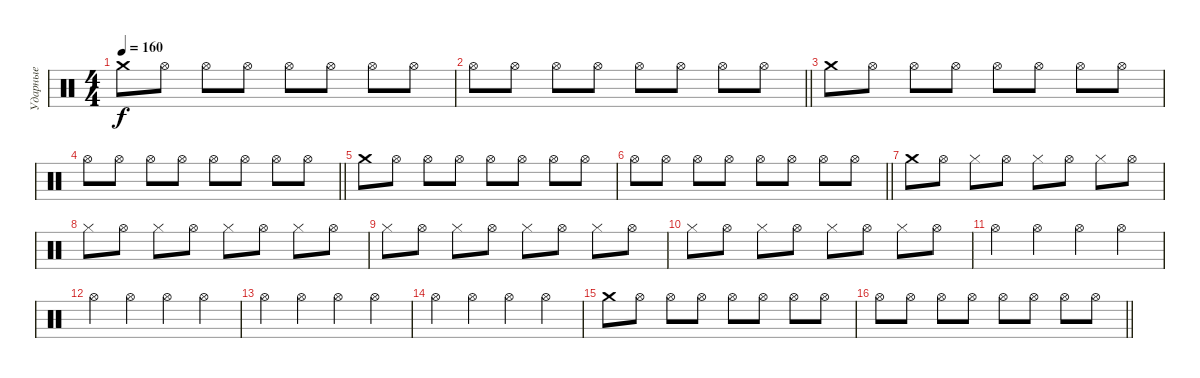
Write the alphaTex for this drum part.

\track ("Ударные" "Ударные") {instrument percussion}
\staff {score}
\articulation defaults
\ts (4 4)
\tempo 160
\clef neutral
\ks c "Crash medium (hit)".8{dy f} "Hi-Hat (open)".8 "Hi-Hat (open)".8 "Hi-Hat (open)".8 "Hi-Hat (open)".8 "Hi-Hat (open)".8 "Hi-Hat (open)".8 "Hi-Hat (open)".8
|
\barLineRight lightlight "Hi-Hat (open)".8 "Hi-Hat (open)".8 "Hi-Hat (open)".8 "Hi-Hat (open)".8 "Hi-Hat (open)".8 "Hi-Hat (open)".8 "Hi-Hat (open)".8 "Hi-Hat (open)".8
|
"Crash medium (hit)".8 "Hi-Hat (open)".8 "Hi-Hat (open)".8 "Hi-Hat (open)".8 "Hi-Hat (open)".8 "Hi-Hat (open)".8 "Hi-Hat (open)".8 "Hi-Hat (open)".8 |
\barLineRight lightlight "Hi-Hat (open)".8 "Hi-Hat (open)".8 "Hi-Hat (open)".8 "Hi-Hat (open)".8 "Hi-Hat (open)".8 "Hi-Hat (open)".8 "Hi-Hat (open)".8 "Hi-Hat (open)".8
|
"Crash medium (hit)".8 "Hi-Hat (open)".8 "Hi-Hat (open)".8 "Hi-Hat (open)".8 "Hi-Hat (open)".8 "Hi-Hat (open)".8 "Hi-Hat (open)".8 "Hi-Hat (open)".8 |
\barLineRight lightlight "Hi-Hat (open)".8 "Hi-Hat (open)".8 "Hi-Hat (open)".8 "Hi-Hat (open)".8 "Hi-Hat (open)".8 "Hi-Hat (open)".8 "Hi-Hat (open)".8 "Hi-Hat (open)".8
|
"Crash medium (hit)".8 "Hi-Hat (open)".8 "Hi-Hat (closed)".8 "Hi-Hat (open)".8 "Hi-Hat (closed)".8 "Hi-Hat (open)".8 "Hi-Hat (closed)".8 "Hi-Hat (open)".8 |
"Hi-Hat (closed)".8 "Hi-Hat (open)".8 "Hi-Hat (closed)".8 "Hi-Hat (open)".8 "Hi-Hat (closed)".8 "Hi-Hat (open)".8 "Hi-Hat (closed)".8 "Hi-Hat (open)".8 |
"Hi-Hat (closed)".8 "Hi-Hat (open)".8 "Hi-Hat (closed)".8 "Hi-Hat (open)".8 "Hi-Hat (closed)".8 "Hi-Hat (open)".8 "Hi-Hat (closed)".8 "Hi-Hat (open)".8 |
"Hi-Hat (closed)".8 "Hi-Hat (open)".8 "Hi-Hat (closed)".8 "Hi-Hat (open)".8 "Hi-Hat (closed)".8 "Hi-Hat (open)".8 "Hi-Hat (closed)".8 "Hi-Hat (open)".8 |
"Hi-Hat (open)".4 "Hi-Hat (open)".4 "Hi-Hat (open)".4 "Hi-Hat (open)".4 |
"Hi-Hat (open)".4 "Hi-Hat (open)".4 "Hi-Hat (open)".4 "Hi-Hat (open)".4 |
"Hi-Hat (open)".4 "Hi-Hat (open)".4 "Hi-Hat (open)".4 "Hi-Hat (open)".4 |
"Hi-Hat (open)".4 "Hi-Hat (open)".4 "Hi-Hat (open)".4 "Hi-Hat (open)".4 |
"Crash medium (hit)".8 "Hi-Hat (open)".8 "Hi-Hat (open)".8 "Hi-Hat (open)".8 "Hi-Hat (open)".8 "Hi-Hat (open)".8 "Hi-Hat (open)".8 "Hi-Hat (open)".8 |
\barLineRight lightlight "Hi-Hat (open)".8 "Hi-Hat (open)".8 "Hi-Hat (open)".8 "Hi-Hat (open)".8 "Hi-Hat (open)".8 "Hi-Hat (open)".8 "Hi-Hat (open)".8 "Hi-Hat (open)".8
